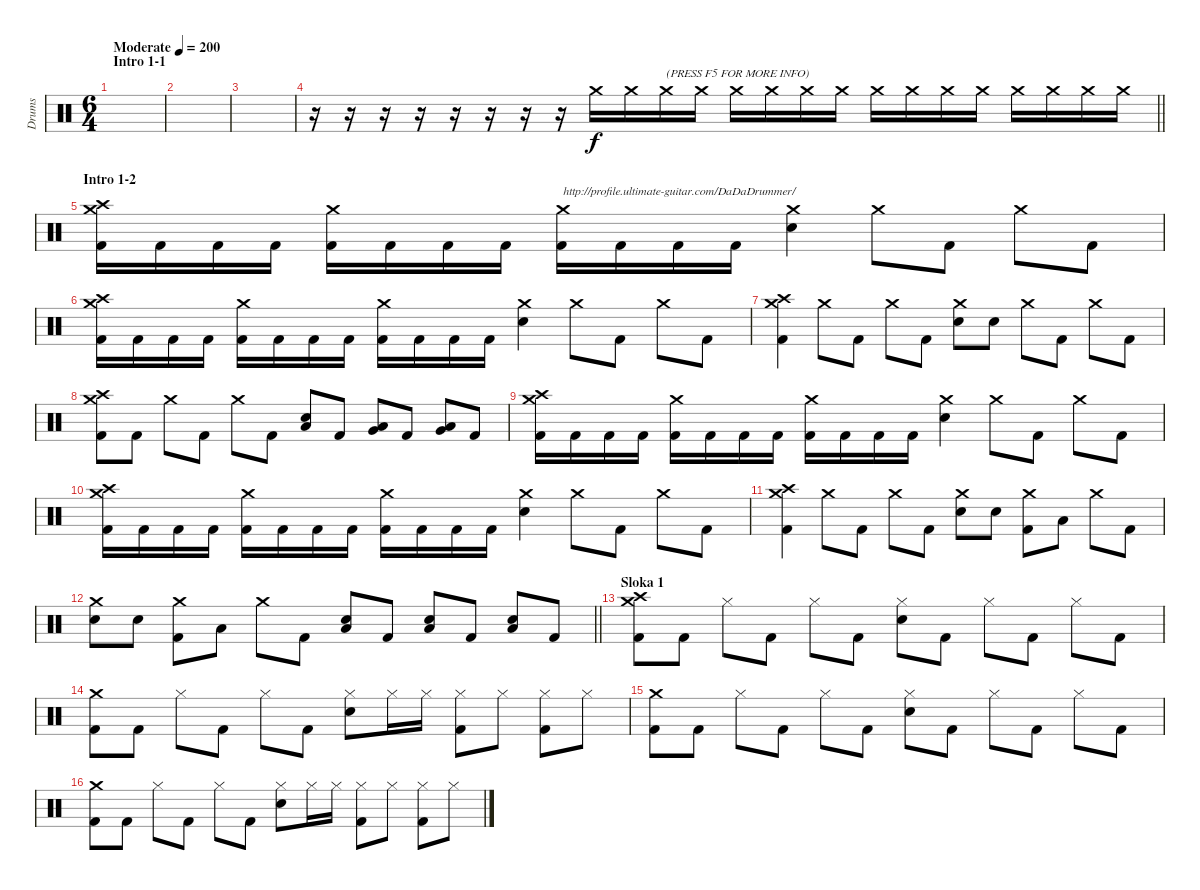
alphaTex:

\track ("Drums" "Drums") {instrument percussion}
\staff {score}
\articulation defaults
\ts (6 4)
\section ("" "Intro 1-1")
\tempo (200 "Moderate")
\clef neutral
\ks c
|
|
|
\barLineRight lightlight
r.16 r.16 r.16 r.16 r.16 r.16 r.16 r.16 "Crash medium (hit)".16{volume 0} "Crash medium (hit)".16{volume 13} "Crash medium (hit)".16{txt "(PRESS F5 FOR MORE INFO)"} "Crash medium (hit)".16 "Crash medium (hit)".16 "Crash medium (hit)".16 "Crash medium (hit)".16 "Crash medium (hit)".16 "Crash medium (hit)".16 "Crash medium (hit)".16 "Crash medium (hit)".16 "Crash medium (hit)".16 "Crash medium (hit)".16 "Crash medium (hit)".16 "Crash medium (hit)".16 "Crash medium (hit)".16 |
\section ("" "Intro 1-2")
("Crash medium (hit)" "Crash high (hit)" "Kick (hit) 2").16 "Kick (hit) 2".16 "Kick (hit) 2".16 "Kick (hit) 2".16 ("Crash medium (hit)" "Kick (hit) 2").16 "Kick (hit) 2".16 "Kick (hit) 2".16 "Kick (hit) 2".16 ("Crash medium (hit)" "Kick (hit) 2").16{txt "http://profile.ultimate-guitar.com/DaDaDrummer/"} "Kick (hit) 2".16 "Kick (hit) 2".16 "Kick (hit) 2".16 ("Crash medium (hit)" "Electric Snare (hit)").4 "Crash medium (hit)".8 "Kick (hit) 2".8 "Crash medium (hit)".8 "Kick (hit) 2".8 |
("Crash medium (hit)" "Crash high (hit)" "Kick (hit) 2").16 "Kick (hit) 2".16 "Kick (hit) 2".16 "Kick (hit) 2".16 ("Crash medium (hit)" "Kick (hit) 2").16 "Kick (hit) 2".16 "Kick (hit) 2".16 "Kick (hit) 2".16 ("Crash medium (hit)" "Kick (hit) 2").16 "Kick (hit) 2".16 "Kick (hit) 2".16 "Kick (hit) 2".16 ("Crash medium (hit)" "Electric Snare (hit)").4 "Crash medium (hit)".8 "Kick (hit) 2".8 "Crash medium (hit)".8 "Kick (hit) 2".8 |
("Crash medium (hit)" "Crash high (hit)" "Kick (hit) 2").4 "Crash medium (hit)".8 "Kick (hit) 2".8 "Crash medium (hit)".8 "Kick (hit) 2".8 ("Crash medium (hit)" "Electric Snare (hit)").8 "Electric Snare (hit)".8 "Crash medium (hit)".8 "Kick (hit) 2".8 "Crash medium (hit)".8 "Kick (hit) 2".8 |
("Crash medium (hit)" "Crash high (hit)" "Kick (hit) 2").8 "Kick (hit) 2".8 "Crash medium (hit)".8 "Kick (hit) 2".8 "Crash medium (hit)".8 "Kick (hit) 2".8 ("Low Floor Tom (hit)" "Electric Snare (hit)").8 "Kick (hit) 2".8 ("Low Tom (hit)" "Very Low Tom (hit)").8 "Kick (hit) 2".8 ("Very Low Tom (hit)" "Low Floor Tom (hit)").8 "Kick (hit) 2".8 |
("Crash medium (hit)" "Crash high (hit)" "Kick (hit) 2").16 "Kick (hit) 2".16 "Kick (hit) 2".16 "Kick (hit) 2".16 ("Crash medium (hit)" "Kick (hit) 2").16 "Kick (hit) 2".16 "Kick (hit) 2".16 "Kick (hit) 2".16 ("Crash medium (hit)" "Kick (hit) 2").16 "Kick (hit) 2".16 "Kick (hit) 2".16 "Kick (hit) 2".16 ("Crash medium (hit)" "Electric Snare (hit)").4 "Crash medium (hit)".8 "Kick (hit) 2".8 "Crash medium (hit)".8 "Kick (hit) 2".8 |
("Crash medium (hit)" "Crash high (hit)" "Kick (hit) 2").16 "Kick (hit) 2".16 "Kick (hit) 2".16 "Kick (hit) 2".16 ("Crash medium (hit)" "Kick (hit) 2").16 "Kick (hit) 2".16 "Kick (hit) 2".16 "Kick (hit) 2".16 ("Crash medium (hit)" "Kick (hit) 2").16 "Kick (hit) 2".16 "Kick (hit) 2".16 "Kick (hit) 2".16 ("Crash medium (hit)" "Electric Snare (hit)").4 "Crash medium (hit)".8 "Kick (hit) 2".8 "Crash medium (hit)".8 "Kick (hit) 2".8 |
("Crash medium (hit)" "Crash high (hit)" "Kick (hit) 2").4 "Crash medium (hit)".8 "Kick (hit) 2".8 "Crash medium (hit)".8 "Kick (hit) 2".8 ("Crash medium (hit)" "Electric Snare (hit)").8 "Electric Snare (hit)".8 ("Crash medium (hit)" "Kick (hit) 2").8 "Low Tom (hit)".8 "Crash medium (hit)".8 "Kick (hit) 2".8 |
\barLineRight lightlight
("Crash medium (hit)" "Electric Snare (hit)").8 "Electric Snare (hit)".8 ("Crash medium (hit)" "Kick (hit) 2").8 "Low Tom (hit)".8 "Crash medium (hit)".8 "Kick (hit) 2".8 ("Low Floor Tom (hit)" "Electric Snare (hit)").8 "Kick (hit) 2".8 ("Low Floor Tom (hit)" "Electric Snare (hit)").8 "Kick (hit) 2".8 ("Low Floor Tom (hit)" "Electric Snare (hit)").8 "Kick (hit) 2".8 |
\section ("" "Sloka 1")
("Crash medium (hit)" "Crash high (hit)" "Kick (hit) 2").8 "Kick (hit) 2".8 "Hi-Hat (closed)".8 "Kick (hit) 2".8 "Hi-Hat (closed)".8 "Kick (hit) 2".8 ("Hi-Hat (closed)" "Electric Snare (hit)").8 "Kick (hit) 2".8 "Hi-Hat (closed)".8 "Kick (hit) 2".8 "Hi-Hat (closed)".8 "Kick (hit) 2".8 |
("Crash medium (hit)" "Kick (hit) 2").8 "Kick (hit) 2".8 "Hi-Hat (closed)".8 "Kick (hit) 2".8 "Hi-Hat (closed)".8 "Kick (hit) 2".8 ("Hi-Hat (closed)" "Electric Snare (hit)").8 "Hi-Hat (closed)".16 "Hi-Hat (closed)".16 ("Hi-Hat (closed)" "Kick (hit) 2").8 "Hi-Hat (closed)".8 ("Hi-Hat (closed)" "Kick (hit) 2").8 "Hi-Hat (closed)".8 |
("Crash medium (hit)" "Kick (hit) 2").8 "Kick (hit) 2".8 "Hi-Hat (closed)".8 "Kick (hit) 2".8 "Hi-Hat (closed)".8 "Kick (hit) 2".8 ("Hi-Hat (closed)" "Electric Snare (hit)").8 "Kick (hit) 2".8 "Hi-Hat (closed)".8 "Kick (hit) 2".8 "Hi-Hat (closed)".8 "Kick (hit) 2".8 |
("Crash medium (hit)" "Kick (hit) 2").8 "Kick (hit) 2".8 "Hi-Hat (closed)".8 "Kick (hit) 2".8 "Hi-Hat (closed)".8 "Kick (hit) 2".8 ("Hi-Hat (closed)" "Electric Snare (hit)").8 "Hi-Hat (closed)".16 "Hi-Hat (closed)".16 ("Hi-Hat (closed)" "Kick (hit) 2").8 "Hi-Hat (closed)".8 ("Hi-Hat (closed)" "Kick (hit) 2").8 "Hi-Hat (closed)".8
